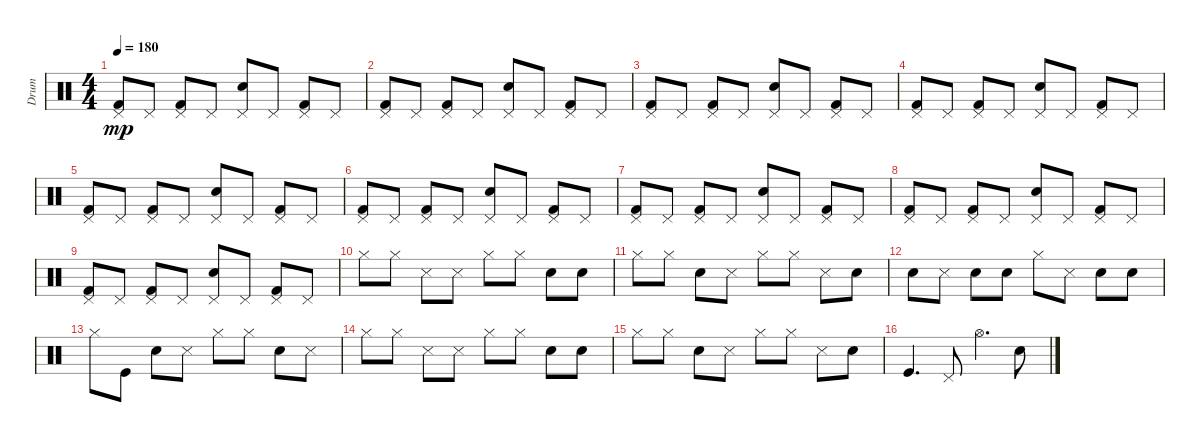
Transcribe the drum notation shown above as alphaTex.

\track ("Drum" "Drum") {instrument percussion}
\staff {score}
\articulation defaults
\ts (4 4)
\tempo 180
\clef neutral
\ks c
("Pedal Hi-Hat (hit)" "Kick (hit) 2").8{dy mp} "Pedal Hi-Hat (hit)".8 ("Pedal Hi-Hat (hit)" "Kick (hit) 2").8 "Pedal Hi-Hat (hit)".8 ("Pedal Hi-Hat (hit)" "Snare (hit) 2").8 "Pedal Hi-Hat (hit)".8 ("Pedal Hi-Hat (hit)" "Kick (hit) 2").8 "Pedal Hi-Hat (hit)".8 |
("Pedal Hi-Hat (hit)" "Kick (hit) 2").8 "Pedal Hi-Hat (hit)".8 ("Pedal Hi-Hat (hit)" "Kick (hit) 2").8 "Pedal Hi-Hat (hit)".8 ("Pedal Hi-Hat (hit)" "Snare (hit) 2").8 "Pedal Hi-Hat (hit)".8 ("Pedal Hi-Hat (hit)" "Kick (hit) 2").8 "Pedal Hi-Hat (hit)".8 |
("Pedal Hi-Hat (hit)" "Kick (hit) 2").8 "Pedal Hi-Hat (hit)".8 ("Pedal Hi-Hat (hit)" "Kick (hit) 2").8 "Pedal Hi-Hat (hit)".8 ("Pedal Hi-Hat (hit)" "Snare (hit) 2").8 "Pedal Hi-Hat (hit)".8 ("Pedal Hi-Hat (hit)" "Kick (hit) 2").8 "Pedal Hi-Hat (hit)".8 |
("Pedal Hi-Hat (hit)" "Kick (hit) 2").8 "Pedal Hi-Hat (hit)".8 ("Pedal Hi-Hat (hit)" "Kick (hit) 2").8 "Pedal Hi-Hat (hit)".8 ("Pedal Hi-Hat (hit)" "Snare (hit) 2").8 "Pedal Hi-Hat (hit)".8 ("Pedal Hi-Hat (hit)" "Kick (hit) 2").8 "Pedal Hi-Hat (hit)".8 |
("Pedal Hi-Hat (hit)" "Kick (hit) 2").8 "Pedal Hi-Hat (hit)".8 ("Pedal Hi-Hat (hit)" "Kick (hit) 2").8 "Pedal Hi-Hat (hit)".8 ("Pedal Hi-Hat (hit)" "Snare (hit) 2").8 "Pedal Hi-Hat (hit)".8 ("Pedal Hi-Hat (hit)" "Kick (hit) 2").8 "Pedal Hi-Hat (hit)".8 |
("Pedal Hi-Hat (hit)" "Kick (hit) 2").8 "Pedal Hi-Hat (hit)".8 ("Pedal Hi-Hat (hit)" "Kick (hit) 2").8 "Pedal Hi-Hat (hit)".8 ("Pedal Hi-Hat (hit)" "Snare (hit) 2").8 "Pedal Hi-Hat (hit)".8 ("Pedal Hi-Hat (hit)" "Kick (hit) 2").8 "Pedal Hi-Hat (hit)".8 |
("Pedal Hi-Hat (hit)" "Kick (hit) 2").8 "Pedal Hi-Hat (hit)".8 ("Pedal Hi-Hat (hit)" "Kick (hit) 2").8 "Pedal Hi-Hat (hit)".8 ("Pedal Hi-Hat (hit)" "Snare (hit) 2").8 "Pedal Hi-Hat (hit)".8 ("Pedal Hi-Hat (hit)" "Kick (hit) 2").8 "Pedal Hi-Hat (hit)".8 |
("Pedal Hi-Hat (hit)" "Kick (hit) 2").8 "Pedal Hi-Hat (hit)".8 ("Pedal Hi-Hat (hit)" "Kick (hit) 2").8 "Pedal Hi-Hat (hit)".8 ("Pedal Hi-Hat (hit)" "Snare (hit) 2").8 "Pedal Hi-Hat (hit)".8 ("Pedal Hi-Hat (hit)" "Kick (hit) 2").8 "Pedal Hi-Hat (hit)".8 |
("Pedal Hi-Hat (hit)" "Kick (hit) 2").8 "Pedal Hi-Hat (hit)".8 ("Pedal Hi-Hat (hit)" "Kick (hit) 2").8 "Pedal Hi-Hat (hit)".8 ("Pedal Hi-Hat (hit)" "Snare (hit) 2").8 "Pedal Hi-Hat (hit)".8 ("Pedal Hi-Hat (hit)" "Kick (hit) 2").8 "Pedal Hi-Hat (hit)".8 |
"Hi-Hat (closed)".8 "Hi-Hat (closed)".8 "Snare (side stick) 3".8 "Snare (side stick) 3".8 "Hi-Hat (closed)".8 "Hi-Hat (closed)".8 "Hand Clap (hit)".8 "Hand Clap (hit)".8 |
"Hi-Hat (closed)".8 "Hi-Hat (closed)".8 "Hand Clap (hit)".8 "Snare (side stick) 3".8 "Hi-Hat (closed)".8 "Hi-Hat (closed)".8 "Snare (side stick) 3".8 "Hand Clap (hit)".8 |
"Hand Clap (hit)".8 "Snare (side stick) 3".8 "Hand Clap (hit)".8 "Hand Clap (hit)".8 "Hi-Hat (closed)".8 "Snare (side stick) 3".8 "Hand Clap (hit)".8 "Hand Clap (hit)".8 |
"Hi-Hat (closed)".8 "Kick (hit)".8 "Hand Clap (hit)".8 "Snare (side stick) 3".8 "Hi-Hat (closed)".8 "Hi-Hat (closed)".8 "Hand Clap (hit)".8 "Snare (side stick) 3".8 |
"Hi-Hat (closed)".8 "Hi-Hat (closed)".8 "Snare (side stick) 3".8 "Snare (side stick) 3".8 "Hi-Hat (closed)".8 "Hi-Hat (closed)".8 "Hand Clap (hit)".8 "Hand Clap (hit)".8 |
"Hi-Hat (closed)".8 "Hi-Hat (closed)".8 "Hand Clap (hit)".8 "Snare (side stick) 3".8 "Hi-Hat (closed)".8 "Hi-Hat (closed)".8 "Snare (side stick) 3".8 "Hand Clap (hit)".8 |
"Kick (hit)".4{d} "Pedal Hi-Hat (hit)".8 "Hi-Hat (open)".4{d} "Snare (hit) 2".8
